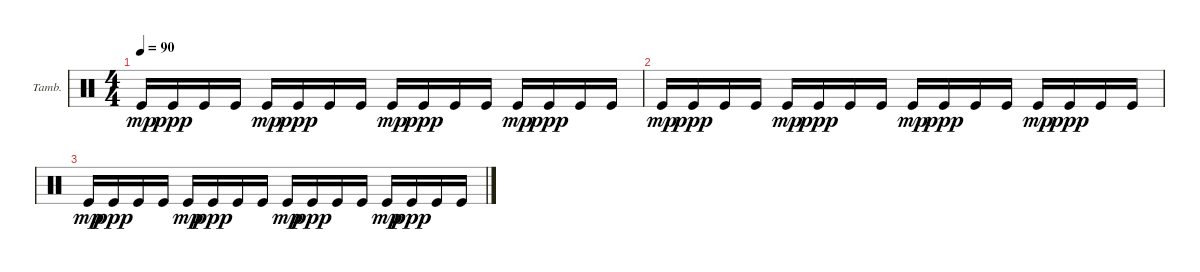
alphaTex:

\defaultSystemsLayout 4
\bracketExtendMode groupsimilarinstruments
\firstSystemTrackNameOrientation horizontal
\otherSystemsTrackNameOrientation horizontal
\track ("Tambourine" "Tamb.") {instrument percussion}
\staff {score}
\articulation defaults
\ts (4 4)
\tempo 90
\clef neutral
\ks c "Kick (hit)".16{dy mp} "Kick (hit)".16{dy ppp} "Kick (hit)".16 "Kick (hit)".16 "Kick (hit)".16{dy mp} "Kick (hit)".16{dy ppp} "Kick (hit)".16 "Kick (hit)".16 "Kick (hit)".16{dy mp} "Kick (hit)".16{dy ppp} "Kick (hit)".16 "Kick (hit)".16 "Kick (hit)".16{dy mp} "Kick (hit)".16{dy ppp} "Kick (hit)".16 "Kick (hit)".16
|
"Kick (hit)".16{dy mp} "Kick (hit)".16{dy ppp} "Kick (hit)".16 "Kick (hit)".16 "Kick (hit)".16{dy mp} "Kick (hit)".16{dy ppp} "Kick (hit)".16 "Kick (hit)".16 "Kick (hit)".16{dy mp} "Kick (hit)".16{dy ppp} "Kick (hit)".16 "Kick (hit)".16 "Kick (hit)".16{dy mp} "Kick (hit)".16{dy ppp} "Kick (hit)".16 "Kick (hit)".16 |
"Kick (hit)".16{dy mp} "Kick (hit)".16{dy ppp} "Kick (hit)".16 "Kick (hit)".16 "Kick (hit)".16{dy mp} "Kick (hit)".16{dy ppp} "Kick (hit)".16 "Kick (hit)".16 "Kick (hit)".16{dy mp} "Kick (hit)".16{dy ppp} "Kick (hit)".16 "Kick (hit)".16 "Kick (hit)".16{dy mp} "Kick (hit)".16{dy ppp} "Kick (hit)".16 "Kick (hit)".16
